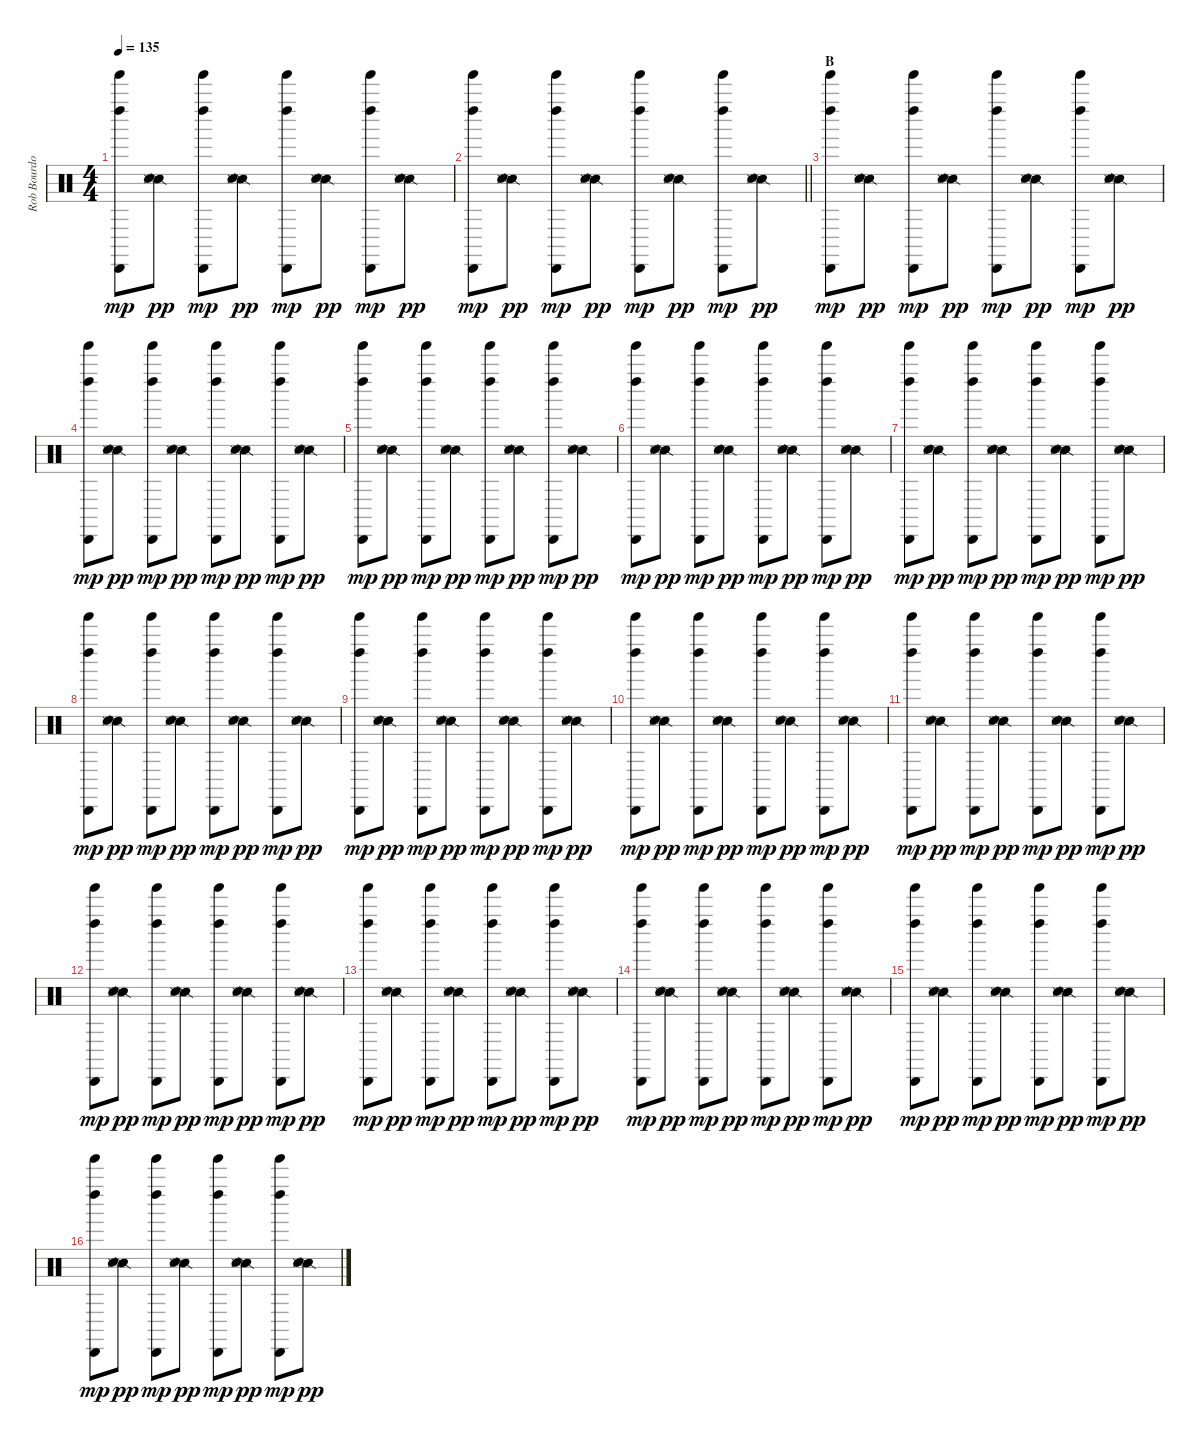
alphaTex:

\track ("Rob Bourdon - Beats & Drums" "Rob Bourdo") {instrument percussion}
\staff {score}
\articulation defaults
\ts (4 4)
\tempo 135
\clef neutral
\ks c
("Tinkle Bell (hit)" "Cabasa (hit)" "Left Maraca (hit)").8{dy mp} ("Snare (side stick) 2" "Electric Snare (hit)" "Snare (side stick) 3").8{dy pp} ("Tinkle Bell (hit)" "Cabasa (hit)" "Left Maraca (hit)").8{dy mp} ("Snare (side stick) 2" "Electric Snare (hit)" "Snare (side stick) 3").8{dy pp} ("Tinkle Bell (hit)" "Cabasa (hit)" "Left Maraca (hit)").8{dy mp} ("Snare (side stick) 2" "Electric Snare (hit)" "Snare (side stick) 3").8{dy pp} ("Tinkle Bell (hit)" "Cabasa (hit)" "Left Maraca (hit)").8{dy mp} ("Snare (side stick) 2" "Electric Snare (hit)" "Snare (side stick) 3").8{dy pp} |
\barLineRight lightlight
("Tinkle Bell (hit)" "Cabasa (hit)" "Left Maraca (hit)").8{dy mp} ("Snare (side stick) 2" "Electric Snare (hit)" "Snare (side stick) 3").8{dy pp} ("Tinkle Bell (hit)" "Cabasa (hit)" "Left Maraca (hit)").8{dy mp} ("Snare (side stick) 2" "Electric Snare (hit)" "Snare (side stick) 3").8{dy pp} ("Tinkle Bell (hit)" "Cabasa (hit)" "Left Maraca (hit)").8{dy mp} ("Snare (side stick) 2" "Electric Snare (hit)" "Snare (side stick) 3").8{dy pp} ("Tinkle Bell (hit)" "Cabasa (hit)" "Left Maraca (hit)").8{dy mp} ("Snare (side stick) 2" "Electric Snare (hit)" "Snare (side stick) 3").8{dy pp} |
\section ("" "B")
("Tinkle Bell (hit)" "Cabasa (hit)" "Left Maraca (hit)").8{dy mp} ("Snare (side stick) 2" "Electric Snare (hit)" "Snare (side stick) 3").8{dy pp} ("Tinkle Bell (hit)" "Cabasa (hit)" "Left Maraca (hit)").8{dy mp} ("Snare (side stick) 2" "Electric Snare (hit)" "Snare (side stick) 3").8{dy pp} ("Tinkle Bell (hit)" "Cabasa (hit)" "Left Maraca (hit)").8{dy mp} ("Snare (side stick) 2" "Electric Snare (hit)" "Snare (side stick) 3").8{dy pp} ("Tinkle Bell (hit)" "Cabasa (hit)" "Left Maraca (hit)").8{dy mp} ("Snare (side stick) 2" "Electric Snare (hit)" "Snare (side stick) 3").8{dy pp} |
("Tinkle Bell (hit)" "Cabasa (hit)" "Left Maraca (hit)").8{dy mp} ("Snare (side stick) 2" "Electric Snare (hit)" "Snare (side stick) 3").8{dy pp} ("Tinkle Bell (hit)" "Cabasa (hit)" "Left Maraca (hit)").8{dy mp} ("Snare (side stick) 2" "Electric Snare (hit)" "Snare (side stick) 3").8{dy pp} ("Tinkle Bell (hit)" "Cabasa (hit)" "Left Maraca (hit)").8{dy mp} ("Snare (side stick) 2" "Electric Snare (hit)" "Snare (side stick) 3").8{dy pp} ("Tinkle Bell (hit)" "Cabasa (hit)" "Left Maraca (hit)").8{dy mp} ("Snare (side stick) 2" "Electric Snare (hit)" "Snare (side stick) 3").8{dy pp} |
("Tinkle Bell (hit)" "Cabasa (hit)" "Left Maraca (hit)").8{dy mp} ("Snare (side stick) 2" "Electric Snare (hit)" "Snare (side stick) 3").8{dy pp} ("Tinkle Bell (hit)" "Cabasa (hit)" "Left Maraca (hit)").8{dy mp} ("Snare (side stick) 2" "Electric Snare (hit)" "Snare (side stick) 3").8{dy pp} ("Tinkle Bell (hit)" "Cabasa (hit)" "Left Maraca (hit)").8{dy mp} ("Snare (side stick) 2" "Electric Snare (hit)" "Snare (side stick) 3").8{dy pp} ("Tinkle Bell (hit)" "Cabasa (hit)" "Left Maraca (hit)").8{dy mp} ("Snare (side stick) 2" "Electric Snare (hit)" "Snare (side stick) 3").8{dy pp} |
("Tinkle Bell (hit)" "Cabasa (hit)" "Left Maraca (hit)").8{dy mp} ("Snare (side stick) 2" "Electric Snare (hit)" "Snare (side stick) 3").8{dy pp} ("Tinkle Bell (hit)" "Cabasa (hit)" "Left Maraca (hit)").8{dy mp} ("Snare (side stick) 2" "Electric Snare (hit)" "Snare (side stick) 3").8{dy pp} ("Tinkle Bell (hit)" "Cabasa (hit)" "Left Maraca (hit)").8{dy mp} ("Snare (side stick) 2" "Electric Snare (hit)" "Snare (side stick) 3").8{dy pp} ("Tinkle Bell (hit)" "Cabasa (hit)" "Left Maraca (hit)").8{dy mp} ("Snare (side stick) 2" "Electric Snare (hit)" "Snare (side stick) 3").8{dy pp} |
("Tinkle Bell (hit)" "Cabasa (hit)" "Left Maraca (hit)").8{dy mp} ("Snare (side stick) 2" "Electric Snare (hit)" "Snare (side stick) 3").8{dy pp} ("Tinkle Bell (hit)" "Cabasa (hit)" "Left Maraca (hit)").8{dy mp} ("Snare (side stick) 2" "Electric Snare (hit)" "Snare (side stick) 3").8{dy pp} ("Tinkle Bell (hit)" "Cabasa (hit)" "Left Maraca (hit)").8{dy mp} ("Snare (side stick) 2" "Electric Snare (hit)" "Snare (side stick) 3").8{dy pp} ("Tinkle Bell (hit)" "Cabasa (hit)" "Left Maraca (hit)").8{dy mp} ("Snare (side stick) 2" "Electric Snare (hit)" "Snare (side stick) 3").8{dy pp} |
("Tinkle Bell (hit)" "Cabasa (hit)" "Left Maraca (hit)").8{dy mp} ("Snare (side stick) 2" "Electric Snare (hit)" "Snare (side stick) 3").8{dy pp} ("Tinkle Bell (hit)" "Cabasa (hit)" "Left Maraca (hit)").8{dy mp} ("Snare (side stick) 2" "Electric Snare (hit)" "Snare (side stick) 3").8{dy pp} ("Tinkle Bell (hit)" "Cabasa (hit)" "Left Maraca (hit)").8{dy mp} ("Snare (side stick) 2" "Electric Snare (hit)" "Snare (side stick) 3").8{dy pp} ("Tinkle Bell (hit)" "Cabasa (hit)" "Left Maraca (hit)").8{dy mp} ("Snare (side stick) 2" "Electric Snare (hit)" "Snare (side stick) 3").8{dy pp} |
("Tinkle Bell (hit)" "Cabasa (hit)" "Left Maraca (hit)").8{dy mp} ("Snare (side stick) 2" "Electric Snare (hit)" "Snare (side stick) 3").8{dy pp} ("Tinkle Bell (hit)" "Cabasa (hit)" "Left Maraca (hit)").8{dy mp} ("Snare (side stick) 2" "Electric Snare (hit)" "Snare (side stick) 3").8{dy pp} ("Tinkle Bell (hit)" "Cabasa (hit)" "Left Maraca (hit)").8{dy mp} ("Snare (side stick) 2" "Electric Snare (hit)" "Snare (side stick) 3").8{dy pp} ("Tinkle Bell (hit)" "Cabasa (hit)" "Left Maraca (hit)").8{dy mp} ("Snare (side stick) 2" "Electric Snare (hit)" "Snare (side stick) 3").8{dy pp} |
("Tinkle Bell (hit)" "Cabasa (hit)" "Left Maraca (hit)").8{dy mp} ("Snare (side stick) 2" "Electric Snare (hit)" "Snare (side stick) 3").8{dy pp} ("Tinkle Bell (hit)" "Cabasa (hit)" "Left Maraca (hit)").8{dy mp} ("Snare (side stick) 2" "Electric Snare (hit)" "Snare (side stick) 3").8{dy pp} ("Tinkle Bell (hit)" "Cabasa (hit)" "Left Maraca (hit)").8{dy mp} ("Snare (side stick) 2" "Electric Snare (hit)" "Snare (side stick) 3").8{dy pp} ("Tinkle Bell (hit)" "Cabasa (hit)" "Left Maraca (hit)").8{dy mp} ("Snare (side stick) 2" "Electric Snare (hit)" "Snare (side stick) 3").8{dy pp} |
("Tinkle Bell (hit)" "Cabasa (hit)" "Left Maraca (hit)").8{dy mp} ("Snare (side stick) 2" "Electric Snare (hit)" "Snare (side stick) 3").8{dy pp} ("Tinkle Bell (hit)" "Cabasa (hit)" "Left Maraca (hit)").8{dy mp} ("Snare (side stick) 2" "Electric Snare (hit)" "Snare (side stick) 3").8{dy pp} ("Tinkle Bell (hit)" "Cabasa (hit)" "Left Maraca (hit)").8{dy mp} ("Snare (side stick) 2" "Electric Snare (hit)" "Snare (side stick) 3").8{dy pp} ("Tinkle Bell (hit)" "Cabasa (hit)" "Left Maraca (hit)").8{dy mp} ("Snare (side stick) 2" "Electric Snare (hit)" "Snare (side stick) 3").8{dy pp} |
("Tinkle Bell (hit)" "Cabasa (hit)" "Left Maraca (hit)").8{dy mp} ("Snare (side stick) 2" "Electric Snare (hit)" "Snare (side stick) 3").8{dy pp} ("Tinkle Bell (hit)" "Cabasa (hit)" "Left Maraca (hit)").8{dy mp} ("Snare (side stick) 2" "Electric Snare (hit)" "Snare (side stick) 3").8{dy pp} ("Tinkle Bell (hit)" "Cabasa (hit)" "Left Maraca (hit)").8{dy mp} ("Snare (side stick) 2" "Electric Snare (hit)" "Snare (side stick) 3").8{dy pp} ("Tinkle Bell (hit)" "Cabasa (hit)" "Left Maraca (hit)").8{dy mp} ("Snare (side stick) 2" "Electric Snare (hit)" "Snare (side stick) 3").8{dy pp} |
("Tinkle Bell (hit)" "Cabasa (hit)" "Left Maraca (hit)").8{dy mp} ("Snare (side stick) 2" "Electric Snare (hit)" "Snare (side stick) 3").8{dy pp} ("Tinkle Bell (hit)" "Cabasa (hit)" "Left Maraca (hit)").8{dy mp} ("Snare (side stick) 2" "Electric Snare (hit)" "Snare (side stick) 3").8{dy pp} ("Tinkle Bell (hit)" "Cabasa (hit)" "Left Maraca (hit)").8{dy mp} ("Snare (side stick) 2" "Electric Snare (hit)" "Snare (side stick) 3").8{dy pp} ("Tinkle Bell (hit)" "Cabasa (hit)" "Left Maraca (hit)").8{dy mp} ("Snare (side stick) 2" "Electric Snare (hit)" "Snare (side stick) 3").8{dy pp} |
("Tinkle Bell (hit)" "Cabasa (hit)" "Left Maraca (hit)").8{dy mp} ("Snare (side stick) 2" "Electric Snare (hit)" "Snare (side stick) 3").8{dy pp} ("Tinkle Bell (hit)" "Cabasa (hit)" "Left Maraca (hit)").8{dy mp} ("Snare (side stick) 2" "Electric Snare (hit)" "Snare (side stick) 3").8{dy pp} ("Tinkle Bell (hit)" "Cabasa (hit)" "Left Maraca (hit)").8{dy mp} ("Snare (side stick) 2" "Electric Snare (hit)" "Snare (side stick) 3").8{dy pp} ("Tinkle Bell (hit)" "Cabasa (hit)" "Left Maraca (hit)").8{dy mp} ("Snare (side stick) 2" "Electric Snare (hit)" "Snare (side stick) 3").8{dy pp} |
("Tinkle Bell (hit)" "Cabasa (hit)" "Left Maraca (hit)").8{dy mp} ("Snare (side stick) 2" "Electric Snare (hit)" "Snare (side stick) 3").8{dy pp} ("Tinkle Bell (hit)" "Cabasa (hit)" "Left Maraca (hit)").8{dy mp} ("Snare (side stick) 2" "Electric Snare (hit)" "Snare (side stick) 3").8{dy pp} ("Tinkle Bell (hit)" "Cabasa (hit)" "Left Maraca (hit)").8{dy mp} ("Snare (side stick) 2" "Electric Snare (hit)" "Snare (side stick) 3").8{dy pp} ("Tinkle Bell (hit)" "Cabasa (hit)" "Left Maraca (hit)").8{dy mp} ("Snare (side stick) 2" "Electric Snare (hit)" "Snare (side stick) 3").8{dy pp} |
("Tinkle Bell (hit)" "Cabasa (hit)" "Left Maraca (hit)").8{dy mp} ("Snare (side stick) 2" "Electric Snare (hit)" "Snare (side stick) 3").8{dy pp} ("Tinkle Bell (hit)" "Cabasa (hit)" "Left Maraca (hit)").8{dy mp} ("Snare (side stick) 2" "Electric Snare (hit)" "Snare (side stick) 3").8{dy pp} ("Tinkle Bell (hit)" "Cabasa (hit)" "Left Maraca (hit)").8{dy mp} ("Snare (side stick) 2" "Electric Snare (hit)" "Snare (side stick) 3").8{dy pp} ("Tinkle Bell (hit)" "Cabasa (hit)" "Left Maraca (hit)").8{dy mp} ("Snare (side stick) 2" "Electric Snare (hit)" "Snare (side stick) 3").8{dy pp}
